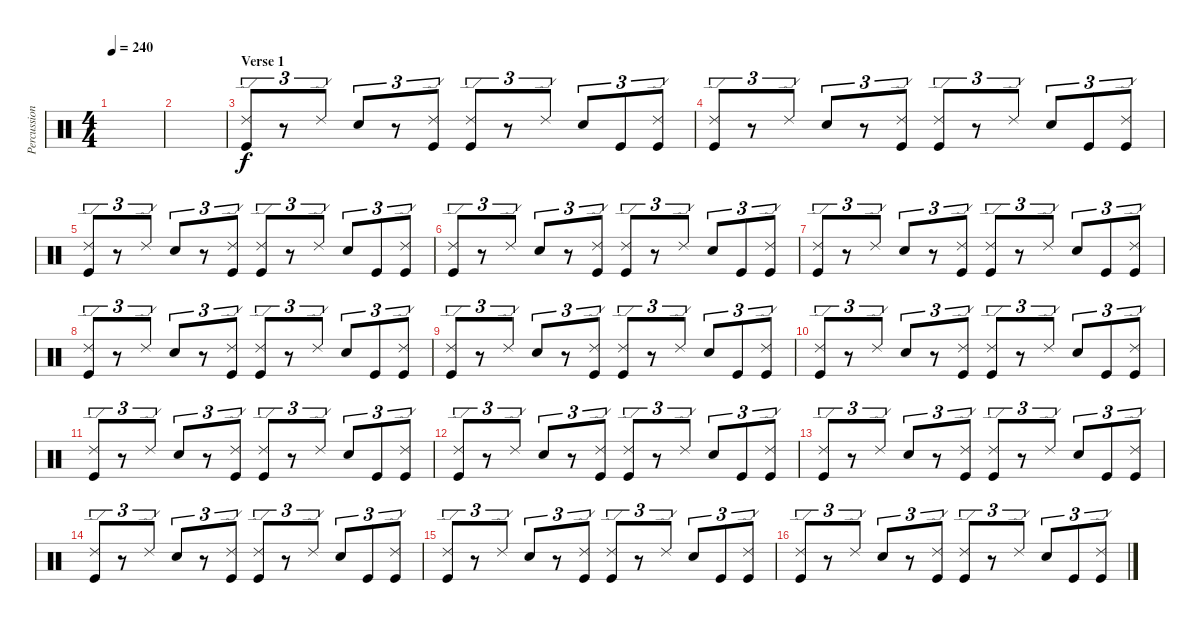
\track ("Percussioni" "Percussion") {instrument percussion}
\staff {score}
\articulation defaults
\ts (4 4)
\tempo 240
\clef neutral
\ks c
|
|
\section ("" "Verse 1")
("Ride (edge) 2" "Kick (hit)").8{tu (3 2)} r.8{tu (3 2)} "Ride (edge) 2".8{tu (3 2)} "Electric Snare (hit)".8{tu (3 2)} r.8{tu (3 2)} ("Ride (edge) 2" "Kick (hit)").8{tu (3 2)} ("Ride (edge) 2" "Kick (hit)").8{tu (3 2)} r.8{tu (3 2)} "Ride (edge) 2".8{tu (3 2)} "Electric Snare (hit)".8{tu (3 2)} "Kick (hit)".8{tu (3 2)} ("Ride (edge) 2" "Kick (hit)").8{tu (3 2)} |
("Ride (edge) 2" "Kick (hit)").8{tu (3 2)} r.8{tu (3 2)} "Ride (edge) 2".8{tu (3 2)} "Electric Snare (hit)".8{tu (3 2)} r.8{tu (3 2)} ("Ride (edge) 2" "Kick (hit)").8{tu (3 2)} ("Ride (edge) 2" "Kick (hit)").8{tu (3 2)} r.8{tu (3 2)} "Ride (edge) 2".8{tu (3 2)} "Electric Snare (hit)".8{tu (3 2)} "Kick (hit)".8{tu (3 2)} ("Ride (edge) 2" "Kick (hit)").8{tu (3 2)} |
("Ride (edge) 2" "Kick (hit)").8{tu (3 2)} r.8{tu (3 2)} "Ride (edge) 2".8{tu (3 2)} "Electric Snare (hit)".8{tu (3 2)} r.8{tu (3 2)} ("Ride (edge) 2" "Kick (hit)").8{tu (3 2)} ("Ride (edge) 2" "Kick (hit)").8{tu (3 2)} r.8{tu (3 2)} "Ride (edge) 2".8{tu (3 2)} "Electric Snare (hit)".8{tu (3 2)} "Kick (hit)".8{tu (3 2)} ("Ride (edge) 2" "Kick (hit)").8{tu (3 2)} |
("Ride (edge) 2" "Kick (hit)").8{tu (3 2)} r.8{tu (3 2)} "Ride (edge) 2".8{tu (3 2)} "Electric Snare (hit)".8{tu (3 2)} r.8{tu (3 2)} ("Ride (edge) 2" "Kick (hit)").8{tu (3 2)} ("Ride (edge) 2" "Kick (hit)").8{tu (3 2)} r.8{tu (3 2)} "Ride (edge) 2".8{tu (3 2)} "Electric Snare (hit)".8{tu (3 2)} "Kick (hit)".8{tu (3 2)} ("Ride (edge) 2" "Kick (hit)").8{tu (3 2)} |
("Ride (edge) 2" "Kick (hit)").8{tu (3 2)} r.8{tu (3 2)} "Ride (edge) 2".8{tu (3 2)} "Electric Snare (hit)".8{tu (3 2)} r.8{tu (3 2)} ("Ride (edge) 2" "Kick (hit)").8{tu (3 2)} ("Ride (edge) 2" "Kick (hit)").8{tu (3 2)} r.8{tu (3 2)} "Ride (edge) 2".8{tu (3 2)} "Electric Snare (hit)".8{tu (3 2)} "Kick (hit)".8{tu (3 2)} ("Ride (edge) 2" "Kick (hit)").8{tu (3 2)} |
("Ride (edge) 2" "Kick (hit)").8{tu (3 2)} r.8{tu (3 2)} "Ride (edge) 2".8{tu (3 2)} "Electric Snare (hit)".8{tu (3 2)} r.8{tu (3 2)} ("Ride (edge) 2" "Kick (hit)").8{tu (3 2)} ("Ride (edge) 2" "Kick (hit)").8{tu (3 2)} r.8{tu (3 2)} "Ride (edge) 2".8{tu (3 2)} "Electric Snare (hit)".8{tu (3 2)} "Kick (hit)".8{tu (3 2)} ("Ride (edge) 2" "Kick (hit)").8{tu (3 2)} |
("Ride (edge) 2" "Kick (hit)").8{tu (3 2)} r.8{tu (3 2)} "Ride (edge) 2".8{tu (3 2)} "Electric Snare (hit)".8{tu (3 2)} r.8{tu (3 2)} ("Ride (edge) 2" "Kick (hit)").8{tu (3 2)} ("Ride (edge) 2" "Kick (hit)").8{tu (3 2)} r.8{tu (3 2)} "Ride (edge) 2".8{tu (3 2)} "Electric Snare (hit)".8{tu (3 2)} "Kick (hit)".8{tu (3 2)} ("Ride (edge) 2" "Kick (hit)").8{tu (3 2)} |
("Ride (edge) 2" "Kick (hit)").8{tu (3 2)} r.8{tu (3 2)} "Ride (edge) 2".8{tu (3 2)} "Electric Snare (hit)".8{tu (3 2)} r.8{tu (3 2)} ("Ride (edge) 2" "Kick (hit)").8{tu (3 2)} ("Ride (edge) 2" "Kick (hit)").8{tu (3 2)} r.8{tu (3 2)} "Ride (edge) 2".8{tu (3 2)} "Electric Snare (hit)".8{tu (3 2)} "Kick (hit)".8{tu (3 2)} ("Ride (edge) 2" "Kick (hit)").8{tu (3 2)} |
("Ride (edge) 2" "Kick (hit)").8{tu (3 2)} r.8{tu (3 2)} "Ride (edge) 2".8{tu (3 2)} "Electric Snare (hit)".8{tu (3 2)} r.8{tu (3 2)} ("Ride (edge) 2" "Kick (hit)").8{tu (3 2)} ("Ride (edge) 2" "Kick (hit)").8{tu (3 2)} r.8{tu (3 2)} "Ride (edge) 2".8{tu (3 2)} "Electric Snare (hit)".8{tu (3 2)} "Kick (hit)".8{tu (3 2)} ("Ride (edge) 2" "Kick (hit)").8{tu (3 2)} |
("Ride (edge) 2" "Kick (hit)").8{tu (3 2)} r.8{tu (3 2)} "Ride (edge) 2".8{tu (3 2)} "Electric Snare (hit)".8{tu (3 2)} r.8{tu (3 2)} ("Ride (edge) 2" "Kick (hit)").8{tu (3 2)} ("Ride (edge) 2" "Kick (hit)").8{tu (3 2)} r.8{tu (3 2)} "Ride (edge) 2".8{tu (3 2)} "Electric Snare (hit)".8{tu (3 2)} "Kick (hit)".8{tu (3 2)} ("Ride (edge) 2" "Kick (hit)").8{tu (3 2)} |
("Ride (edge) 2" "Kick (hit)").8{tu (3 2)} r.8{tu (3 2)} "Ride (edge) 2".8{tu (3 2)} "Electric Snare (hit)".8{tu (3 2)} r.8{tu (3 2)} ("Ride (edge) 2" "Kick (hit)").8{tu (3 2)} ("Ride (edge) 2" "Kick (hit)").8{tu (3 2)} r.8{tu (3 2)} "Ride (edge) 2".8{tu (3 2)} "Electric Snare (hit)".8{tu (3 2)} "Kick (hit)".8{tu (3 2)} ("Ride (edge) 2" "Kick (hit)").8{tu (3 2)} |
("Ride (edge) 2" "Kick (hit)").8{tu (3 2)} r.8{tu (3 2)} "Ride (edge) 2".8{tu (3 2)} "Electric Snare (hit)".8{tu (3 2)} r.8{tu (3 2)} ("Ride (edge) 2" "Kick (hit)").8{tu (3 2)} ("Ride (edge) 2" "Kick (hit)").8{tu (3 2)} r.8{tu (3 2)} "Ride (edge) 2".8{tu (3 2)} "Electric Snare (hit)".8{tu (3 2)} "Kick (hit)".8{tu (3 2)} ("Ride (edge) 2" "Kick (hit)").8{tu (3 2)} |
("Ride (edge) 2" "Kick (hit)").8{tu (3 2)} r.8{tu (3 2)} "Ride (edge) 2".8{tu (3 2)} "Electric Snare (hit)".8{tu (3 2)} r.8{tu (3 2)} ("Ride (edge) 2" "Kick (hit)").8{tu (3 2)} ("Ride (edge) 2" "Kick (hit)").8{tu (3 2)} r.8{tu (3 2)} "Ride (edge) 2".8{tu (3 2)} "Electric Snare (hit)".8{tu (3 2)} "Kick (hit)".8{tu (3 2)} ("Ride (edge) 2" "Kick (hit)").8{tu (3 2)} |
("Ride (edge) 2" "Kick (hit)").8{tu (3 2)} r.8{tu (3 2)} "Ride (edge) 2".8{tu (3 2)} "Electric Snare (hit)".8{tu (3 2)} r.8{tu (3 2)} ("Ride (edge) 2" "Kick (hit)").8{tu (3 2)} ("Ride (edge) 2" "Kick (hit)").8{tu (3 2)} r.8{tu (3 2)} "Ride (edge) 2".8{tu (3 2)} "Electric Snare (hit)".8{tu (3 2)} "Kick (hit)".8{tu (3 2)} ("Ride (edge) 2" "Kick (hit)").8{tu (3 2)}
